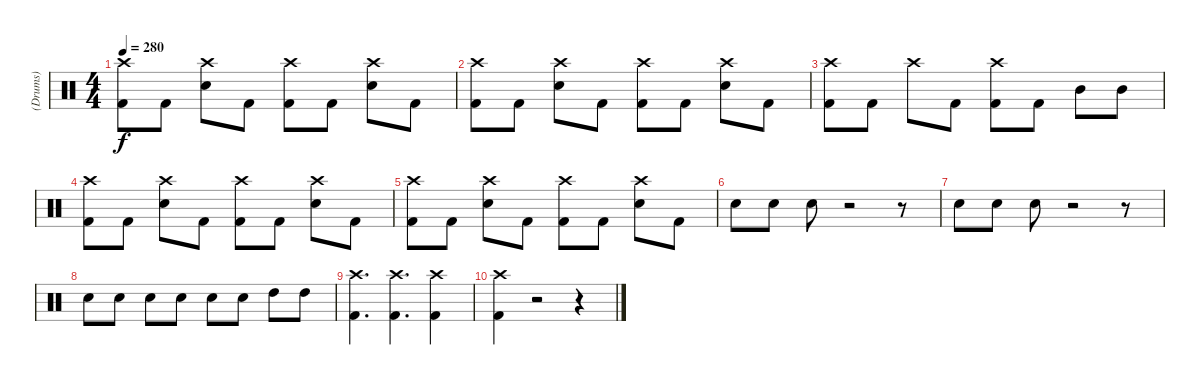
\track ("(Drums)" "(Drums)") {instrument percussion}
\staff {score}
\articulation defaults
\ts (4 4)
\tempo 280
\clef neutral
\ks c
("Kick (hit) 2" "Crash high (hit)").8{dy f} "Kick (hit) 2".8 ("Crash high (hit)" "Snare (hit) 2").8 "Kick (hit) 2".8 ("Kick (hit) 2" "Crash high (hit)").8 "Kick (hit) 2".8 ("Crash high (hit)" "Snare (hit) 2").8 "Kick (hit) 2".8 |
("Kick (hit) 2" "Crash high (hit)").8 "Kick (hit) 2".8 ("Crash high (hit)" "Snare (hit) 2").8 "Kick (hit) 2".8 ("Kick (hit) 2" "Crash high (hit)").8 "Kick (hit) 2".8 ("Crash high (hit)" "Snare (hit) 2").8 "Kick (hit) 2".8 |
("Crash high (hit)" "Kick (hit) 2").8 "Kick (hit) 2".8 "Crash high (hit)".8 "Kick (hit) 2".8 ("Crash high (hit)" "Kick (hit) 2").8 "Kick (hit) 2".8 "Mid Tom (hit)".8 "Mid Tom (hit)".8 |
("Kick (hit) 2" "Crash high (hit)").8 "Kick (hit) 2".8 ("Crash high (hit)" "Snare (hit) 2").8 "Kick (hit) 2".8 ("Kick (hit) 2" "Crash high (hit)").8 "Kick (hit) 2".8 ("Crash high (hit)" "Snare (hit) 2").8 "Kick (hit) 2".8 |
("Kick (hit) 2" "Crash high (hit)").8 "Kick (hit) 2".8 ("Crash high (hit)" "Snare (hit) 2").8 "Kick (hit) 2".8 ("Kick (hit) 2" "Crash high (hit)").8 "Kick (hit) 2".8 ("Crash high (hit)" "Snare (hit) 2").8 "Kick (hit) 2".8 |
"Snare (hit) 2".8 "Snare (hit) 2".8 "Snare (hit) 2".8 r.2 r.8 |
"Snare (hit) 2".8 "Snare (hit) 2".8 "Snare (hit) 2".8 r.2 r.8 |
"Snare (hit) 2".8 "Snare (hit) 2".8 "Snare (hit) 2".8 "Snare (hit) 2".8 "Snare (hit) 2".8 "Snare (hit) 2".8 "High Tom (hit)".8 "High Tom (hit)".8 |
("Kick (hit) 2" "Crash high (hit)").4{d} ("Kick (hit) 2" "Crash high (hit)").4{d} ("Kick (hit) 2" "Crash high (hit)").4 |
("Kick (hit) 2" "Crash high (hit)").4 r.2 r.4
